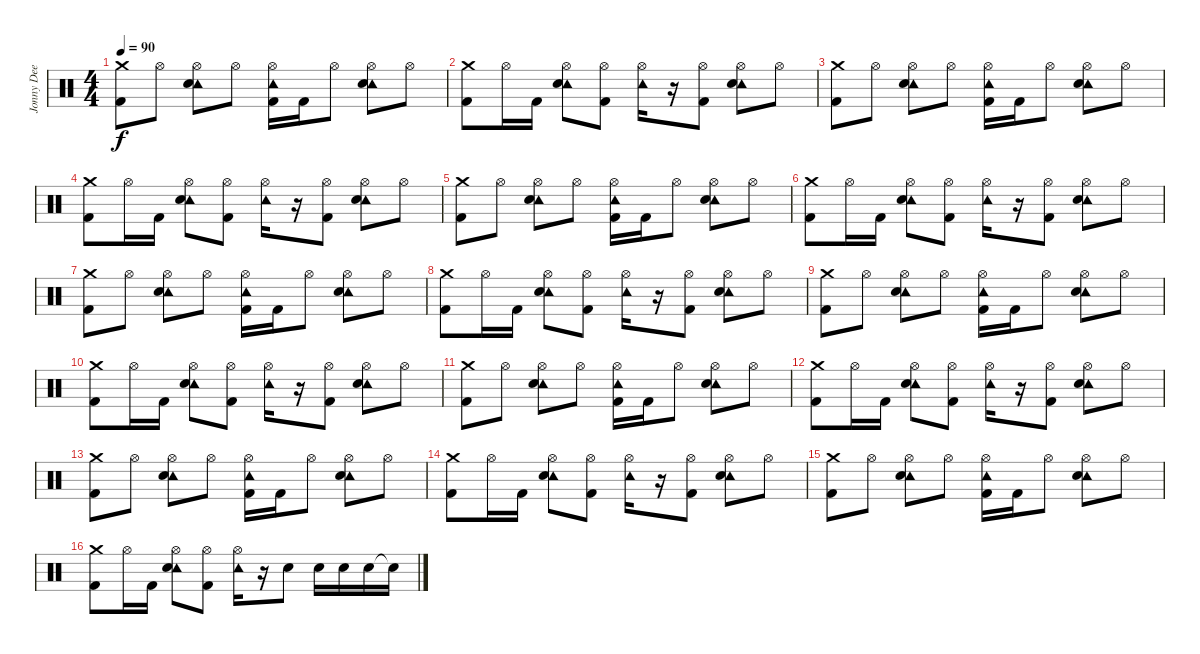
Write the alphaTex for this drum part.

\track ("Jonny Dee" "Jonny Dee") {instrument percussion}
\staff {score}
\articulation defaults
\ts (4 4)
\tempo 90
\clef neutral
\ks c
("Crash medium (hit)" "Kick (hit) 2").8{dy f} "Hi-Hat (open)".8 ("Tambourine (hit)" "Hi-Hat (open)" "Snare (hit) 2").8 "Hi-Hat (open)".8 ("Tambourine (hit)" "Hi-Hat (open)" "Kick (hit) 2").16 "Kick (hit) 2".16 "Hi-Hat (open)".8 ("Tambourine (hit)" "Hi-Hat (open)" "Snare (hit) 2").8 "Hi-Hat (open)".8 |
("Crash medium (hit)" "Kick (hit) 2").8 "Hi-Hat (open)".16 "Kick (hit) 2".16 ("Tambourine (hit)" "Hi-Hat (open)" "Snare (hit) 2").8 ("Hi-Hat (open)" "Kick (hit) 2").8 ("Tambourine (hit)" "Hi-Hat (open)").16 r.16 ("Hi-Hat (open)" "Kick (hit) 2").8 ("Tambourine (hit)" "Hi-Hat (open)" "Snare (hit) 2").8 "Hi-Hat (open)".8 |
("Crash medium (hit)" "Kick (hit) 2").8 "Hi-Hat (open)".8 ("Tambourine (hit)" "Hi-Hat (open)" "Snare (hit) 2").8 "Hi-Hat (open)".8 ("Tambourine (hit)" "Hi-Hat (open)" "Kick (hit) 2").16 "Kick (hit) 2".16 "Hi-Hat (open)".8 ("Tambourine (hit)" "Hi-Hat (open)" "Snare (hit) 2").8 "Hi-Hat (open)".8 |
("Crash medium (hit)" "Kick (hit) 2").8 "Hi-Hat (open)".16 "Kick (hit) 2".16 ("Tambourine (hit)" "Hi-Hat (open)" "Snare (hit) 2").8 ("Hi-Hat (open)" "Kick (hit) 2").8 ("Tambourine (hit)" "Hi-Hat (open)").16 r.16 ("Hi-Hat (open)" "Kick (hit) 2").8 ("Tambourine (hit)" "Hi-Hat (open)" "Snare (hit) 2").8 "Hi-Hat (open)".8 |
("Crash medium (hit)" "Kick (hit) 2").8 "Hi-Hat (open)".8 ("Tambourine (hit)" "Hi-Hat (open)" "Snare (hit) 2").8 "Hi-Hat (open)".8 ("Tambourine (hit)" "Hi-Hat (open)" "Kick (hit) 2").16 "Kick (hit) 2".16 "Hi-Hat (open)".8 ("Tambourine (hit)" "Hi-Hat (open)" "Snare (hit) 2").8 "Hi-Hat (open)".8 |
("Crash medium (hit)" "Kick (hit) 2").8 "Hi-Hat (open)".16 "Kick (hit) 2".16 ("Tambourine (hit)" "Hi-Hat (open)" "Snare (hit) 2").8 ("Hi-Hat (open)" "Kick (hit) 2").8 ("Tambourine (hit)" "Hi-Hat (open)").16 r.16 ("Hi-Hat (open)" "Kick (hit) 2").8 ("Tambourine (hit)" "Hi-Hat (open)" "Snare (hit) 2").8 "Hi-Hat (open)".8 |
("Crash medium (hit)" "Kick (hit) 2").8 "Hi-Hat (open)".8 ("Tambourine (hit)" "Hi-Hat (open)" "Snare (hit) 2").8 "Hi-Hat (open)".8 ("Tambourine (hit)" "Hi-Hat (open)" "Kick (hit) 2").16 "Kick (hit) 2".16 "Hi-Hat (open)".8 ("Tambourine (hit)" "Hi-Hat (open)" "Snare (hit) 2").8 "Hi-Hat (open)".8 |
("Crash medium (hit)" "Kick (hit) 2").8 "Hi-Hat (open)".16 "Kick (hit) 2".16 ("Tambourine (hit)" "Hi-Hat (open)" "Snare (hit) 2").8 ("Hi-Hat (open)" "Kick (hit) 2").8 ("Tambourine (hit)" "Hi-Hat (open)").16 r.16 ("Hi-Hat (open)" "Kick (hit) 2").8 ("Tambourine (hit)" "Hi-Hat (open)" "Snare (hit) 2").8 "Hi-Hat (open)".8 |
("Crash medium (hit)" "Kick (hit) 2").8 "Hi-Hat (open)".8 ("Tambourine (hit)" "Hi-Hat (open)" "Snare (hit) 2").8 "Hi-Hat (open)".8 ("Tambourine (hit)" "Hi-Hat (open)" "Kick (hit) 2").16 "Kick (hit) 2".16 "Hi-Hat (open)".8 ("Tambourine (hit)" "Hi-Hat (open)" "Snare (hit) 2").8 "Hi-Hat (open)".8 |
("Crash medium (hit)" "Kick (hit) 2").8 "Hi-Hat (open)".16 "Kick (hit) 2".16 ("Tambourine (hit)" "Hi-Hat (open)" "Snare (hit) 2").8 ("Hi-Hat (open)" "Kick (hit) 2").8 ("Tambourine (hit)" "Hi-Hat (open)").16 r.16 ("Hi-Hat (open)" "Kick (hit) 2").8 ("Tambourine (hit)" "Hi-Hat (open)" "Snare (hit) 2").8 "Hi-Hat (open)".8 |
("Crash medium (hit)" "Kick (hit) 2").8 "Hi-Hat (open)".8 ("Tambourine (hit)" "Hi-Hat (open)" "Snare (hit) 2").8 "Hi-Hat (open)".8 ("Tambourine (hit)" "Hi-Hat (open)" "Kick (hit) 2").16 "Kick (hit) 2".16 "Hi-Hat (open)".8 ("Tambourine (hit)" "Hi-Hat (open)" "Snare (hit) 2").8 "Hi-Hat (open)".8 |
("Crash medium (hit)" "Kick (hit) 2").8 "Hi-Hat (open)".16 "Kick (hit) 2".16 ("Tambourine (hit)" "Hi-Hat (open)" "Snare (hit) 2").8 ("Hi-Hat (open)" "Kick (hit) 2").8 ("Tambourine (hit)" "Hi-Hat (open)").16 r.16 ("Hi-Hat (open)" "Kick (hit) 2").8 ("Tambourine (hit)" "Hi-Hat (open)" "Snare (hit) 2").8 "Hi-Hat (open)".8 |
("Crash medium (hit)" "Kick (hit) 2").8 "Hi-Hat (open)".8 ("Tambourine (hit)" "Hi-Hat (open)" "Snare (hit) 2").8 "Hi-Hat (open)".8 ("Tambourine (hit)" "Hi-Hat (open)" "Kick (hit) 2").16 "Kick (hit) 2".16 "Hi-Hat (open)".8 ("Tambourine (hit)" "Hi-Hat (open)" "Snare (hit) 2").8 "Hi-Hat (open)".8 |
("Crash medium (hit)" "Kick (hit) 2").8 "Hi-Hat (open)".16 "Kick (hit) 2".16 ("Tambourine (hit)" "Hi-Hat (open)" "Snare (hit) 2").8 ("Hi-Hat (open)" "Kick (hit) 2").8 ("Tambourine (hit)" "Hi-Hat (open)").16 r.16 ("Hi-Hat (open)" "Kick (hit) 2").8 ("Tambourine (hit)" "Hi-Hat (open)" "Snare (hit) 2").8 "Hi-Hat (open)".8 |
("Crash medium (hit)" "Kick (hit) 2").8 "Hi-Hat (open)".8 ("Tambourine (hit)" "Hi-Hat (open)" "Snare (hit) 2").8 "Hi-Hat (open)".8 ("Tambourine (hit)" "Hi-Hat (open)" "Kick (hit) 2").16 "Kick (hit) 2".16 "Hi-Hat (open)".8 ("Tambourine (hit)" "Hi-Hat (open)" "Snare (hit) 2").8 "Hi-Hat (open)".8 |
("Crash medium (hit)" "Kick (hit) 2").8 "Hi-Hat (open)".16 "Kick (hit) 2".16 ("Tambourine (hit)" "Hi-Hat (open)" "Snare (hit) 2").8 ("Hi-Hat (open)" "Kick (hit) 2").8 ("Tambourine (hit)" "Hi-Hat (open)").16 r.16 "Snare (hit) 2".8 "Snare (hit) 2".16 "Snare (hit) 2".16 "Snare (hit) 2".16 "Snare (hit) 2"{t}.16
